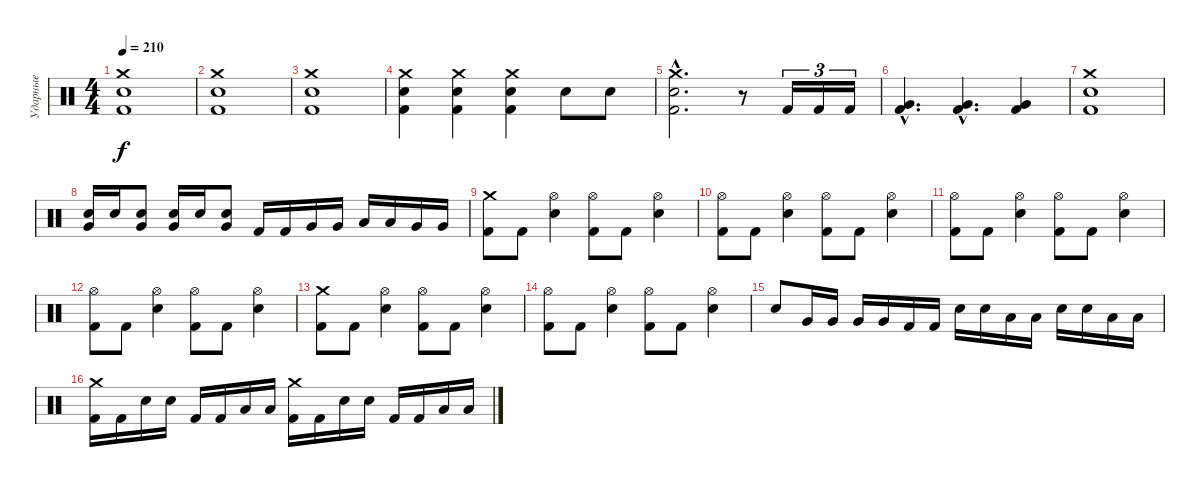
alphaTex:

\track ("Ударные" "Ударные") {instrument percussion}
\staff {score}
\articulation defaults
\ts (4 4)
\tempo 210
\clef neutral
\ks c
("Crash medium (hit)" "Snare (hit) 2" "Kick (hit) 2").1{dy f} |
("Crash medium (hit)" "Snare (hit) 2" "Kick (hit) 2").1 |
("Crash medium (hit)" "Snare (hit) 2" "Kick (hit) 2").1 |
("Crash medium (hit)" "Snare (hit) 2" "Kick (hit) 2").4 ("Crash medium (hit)" "Snare (hit) 2" "Kick (hit) 2").4 ("Crash medium (hit)" "Snare (hit) 2" "Kick (hit) 2").4 "Snare (hit) 2".8 "Snare (hit) 2".8 |
("Crash medium (hit)"{hac} "Snare (hit) 2"{hac} "Kick (hit) 2"{hac}).2{d} r.8 "Kick (hit) 2".16{tu (3 2)} "Kick (hit) 2".16{tu (3 2)} "Kick (hit) 2".16{tu (3 2)} |
("Very Low Tom (hit)"{hac} "Kick (hit) 2"{hac}).4{d} ("Very Low Tom (hit)"{hac} "Kick (hit) 2"{hac}).4{d} ("Very Low Tom (hit)" "Kick (hit) 2").4 |
("Crash medium (hit)" "Snare (hit) 2" "Kick (hit) 2").1 |
("Very Low Tom (hit)" "Snare (hit) 2").16 "Snare (hit) 2".16 ("Very Low Tom (hit)" "Snare (hit) 2").8 ("Very Low Tom (hit)" "Snare (hit) 2").16 "Snare (hit) 2".16 ("Very Low Tom (hit)" "Snare (hit) 2").8 "Kick (hit) 2".16 "Kick (hit) 2".16 "Very Low Tom (hit)".16 "Very Low Tom (hit)".16 "Low Tom (hit)".16 "Low Tom (hit)".16 "Very Low Tom (hit)".16 "Very Low Tom (hit)".16 |
("Crash medium (hit)" "Kick (hit) 2").8 "Kick (hit) 2".8 ("Hi-Hat (open)" "Snare (hit) 2").4 ("Hi-Hat (open)" "Kick (hit) 2").8 "Kick (hit) 2".8 ("Hi-Hat (open)" "Snare (hit) 2").4 |
("Hi-Hat (open)" "Kick (hit) 2").8 "Kick (hit) 2".8 ("Hi-Hat (open)" "Snare (hit) 2").4 ("Hi-Hat (open)" "Kick (hit) 2").8 "Kick (hit) 2".8 ("Hi-Hat (open)" "Snare (hit) 2").4 |
("Hi-Hat (open)" "Kick (hit) 2").8 "Kick (hit) 2".8 ("Hi-Hat (open)" "Snare (hit) 2").4 ("Hi-Hat (open)" "Kick (hit) 2").8 "Kick (hit) 2".8 ("Hi-Hat (open)" "Snare (hit) 2").4 |
("Hi-Hat (open)" "Kick (hit) 2").8 "Kick (hit) 2".8 ("Hi-Hat (open)" "Snare (hit) 2").4 ("Hi-Hat (open)" "Kick (hit) 2").8 "Kick (hit) 2".8 ("Hi-Hat (open)" "Snare (hit) 2").4 |
("Crash medium (hit)" "Kick (hit) 2").8 "Kick (hit) 2".8 ("Hi-Hat (open)" "Snare (hit) 2").4 ("Hi-Hat (open)" "Kick (hit) 2").8 "Kick (hit) 2".8 ("Hi-Hat (open)" "Snare (hit) 2").4 |
("Hi-Hat (open)" "Kick (hit) 2").8 "Kick (hit) 2".8 ("Hi-Hat (open)" "Snare (hit) 2").4 ("Hi-Hat (open)" "Kick (hit) 2").8 "Kick (hit) 2".8 ("Hi-Hat (open)" "Snare (hit) 2").4 |
"Snare (hit) 2".8 "Very Low Tom (hit)".16 "Very Low Tom (hit)".16 "Very Low Tom (hit)".16 "Very Low Tom (hit)".16 "Kick (hit) 2".16 "Kick (hit) 2".16 "Snare (hit) 2".16 "Snare (hit) 2".16 "Low Tom (hit)".16 "Low Tom (hit)".16 "Snare (hit) 2".16 "Snare (hit) 2".16 "Low Tom (hit)".16 "Low Tom (hit)".16 |
("Crash medium (hit)" "Kick (hit) 2").16 "Kick (hit) 2".16 "Snare (hit) 2".16 "Snare (hit) 2".16 "Kick (hit) 2".16 "Kick (hit) 2".16 "Low Tom (hit)".16 "Low Tom (hit)".16 ("Crash medium (hit)" "Kick (hit) 2").16 "Kick (hit) 2".16 "Snare (hit) 2".16 "Snare (hit) 2".16 "Kick (hit) 2".16 "Kick (hit) 2".16 "Low Tom (hit)".16 "Low Tom (hit)".16
